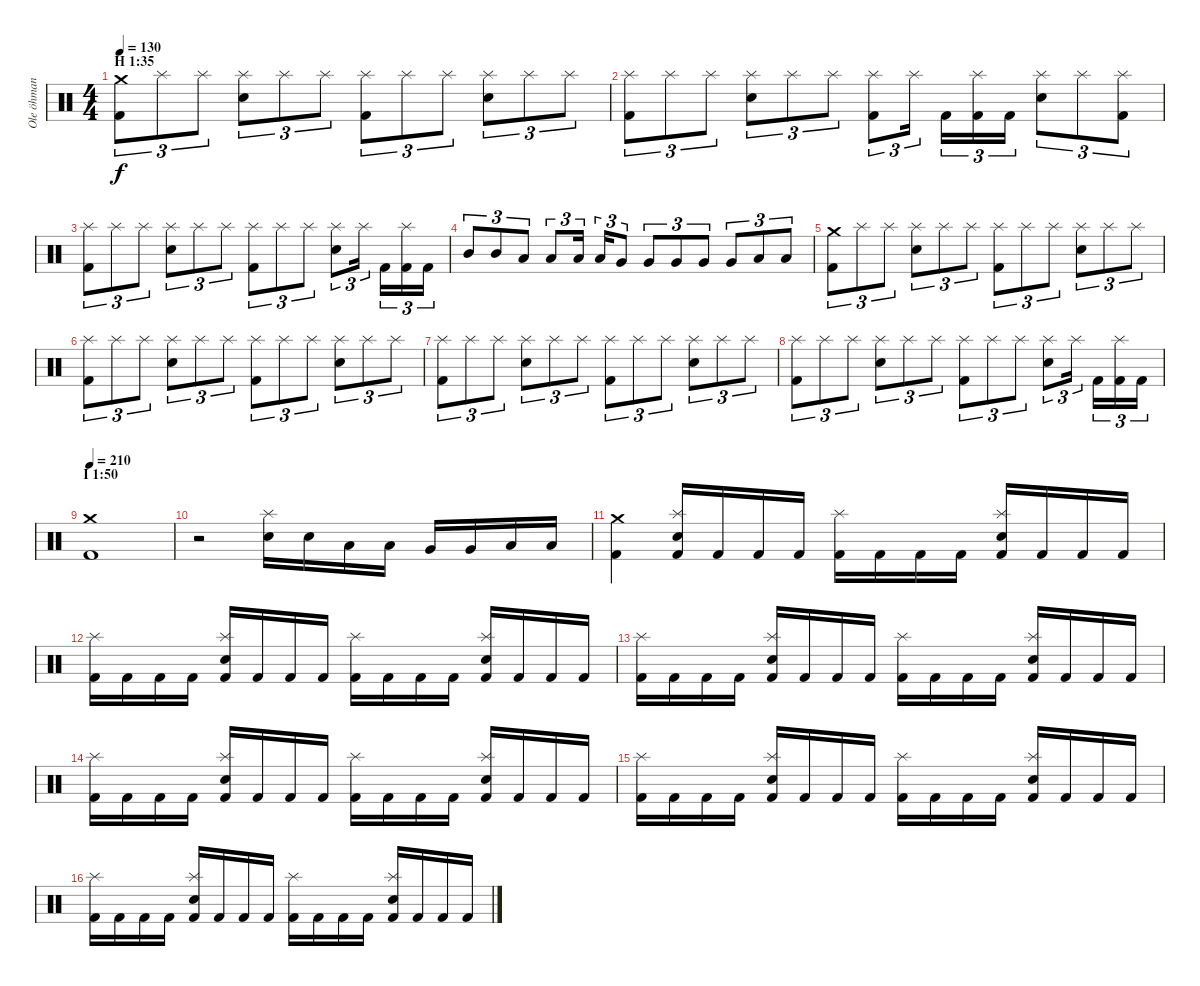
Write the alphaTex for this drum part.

\track ("Ole öhman" "Ole öhman") {instrument percussion}
\staff {score}
\articulation defaults
\ts (4 4)
\section ("" "H 1:35")
\tempo 130
\clef neutral
\ks c
("Crash medium (hit)" "Kick (hit) 2").8{tu (3 2) dy f} "Splash (hit)".8{tu (3 2)} "Splash (hit)".8{tu (3 2)} ("Splash (hit)" "Electric Snare (hit)").8{tu (3 2)} "Splash (hit)".8{tu (3 2)} "Splash (hit)".8{tu (3 2)} ("Splash (hit)" "Kick (hit) 2").8{tu (3 2)} "Splash (hit)".8{tu (3 2)} "Splash (hit)".8{tu (3 2)} ("Splash (hit)" "Electric Snare (hit)").8{tu (3 2)} "Splash (hit)".8{tu (3 2)} "Splash (hit)".8{tu (3 2)} |
("Splash (hit)" "Kick (hit) 2").8{tu (3 2)} "Splash (hit)".8{tu (3 2)} "Splash (hit)".8{tu (3 2)} ("Splash (hit)" "Electric Snare (hit)").8{tu (3 2)} "Splash (hit)".8{tu (3 2)} "Splash (hit)".8{tu (3 2)} ("Splash (hit)" "Kick (hit) 2").8{tu (3 2)} "Splash (hit)".16{tu (3 2)} "Kick (hit) 2".16{tu (3 2)} ("Splash (hit)" "Kick (hit) 2").16{tu (3 2)} "Kick (hit) 2".16{tu (3 2)} ("Splash (hit)" "Electric Snare (hit)").8{tu (3 2)} "Splash (hit)".8{tu (3 2)} ("Splash (hit)" "Kick (hit) 2").8{tu (3 2)} |
("Splash (hit)" "Kick (hit) 2").8{tu (3 2)} "Splash (hit)".8{tu (3 2)} "Splash (hit)".8{tu (3 2)} ("Splash (hit)" "Electric Snare (hit)").8{tu (3 2)} "Splash (hit)".8{tu (3 2)} "Splash (hit)".8{tu (3 2)} ("Splash (hit)" "Kick (hit) 2").8{tu (3 2)} "Splash (hit)".8{tu (3 2)} "Splash (hit)".8{tu (3 2)} ("Splash (hit)" "Electric Snare (hit)").8{tu (3 2)} "Splash (hit)".16{tu (3 2)} "Kick (hit) 2".16{tu (3 2)} ("Splash (hit)" "Kick (hit) 2").16{tu (3 2)} "Kick (hit) 2".16{tu (3 2)} |
"Mid Tom (hit)".8{tu (3 2)} "Mid Tom (hit)".8{tu (3 2)} "Low Tom (hit)".8{tu (3 2)} "Low Tom (hit)".8{tu (3 2)} "Low Tom (hit)".16{tu (3 2)} "Low Tom (hit)".16{tu (3 2)} "Very Low Tom (hit)".8{tu (3 2)} "Very Low Tom (hit)".8{tu (3 2)} "Very Low Tom (hit)".8{tu (3 2)} "Very Low Tom (hit)".8{tu (3 2)} "Very Low Tom (hit)".8{tu (3 2)} "Low Floor Tom (hit)".8{tu (3 2)} "Low Floor Tom (hit)".8{tu (3 2)} |
("Crash medium (hit)" "Kick (hit) 2").8{tu (3 2)} "Splash (hit)".8{tu (3 2)} "Splash (hit)".8{tu (3 2)} ("Splash (hit)" "Electric Snare (hit)").8{tu (3 2)} "Splash (hit)".8{tu (3 2)} "Splash (hit)".8{tu (3 2)} ("Splash (hit)" "Kick (hit) 2").8{tu (3 2)} "Splash (hit)".8{tu (3 2)} "Splash (hit)".8{tu (3 2)} ("Splash (hit)" "Electric Snare (hit)").8{tu (3 2)} "Splash (hit)".8{tu (3 2)} "Splash (hit)".8{tu (3 2)} |
("Splash (hit)" "Kick (hit) 2").8{tu (3 2)} "Splash (hit)".8{tu (3 2)} "Splash (hit)".8{tu (3 2)} ("Splash (hit)" "Electric Snare (hit)").8{tu (3 2)} "Splash (hit)".8{tu (3 2)} "Splash (hit)".8{tu (3 2)} ("Splash (hit)" "Kick (hit) 2").8{tu (3 2)} "Splash (hit)".8{tu (3 2)} "Splash (hit)".8{tu (3 2)} ("Splash (hit)" "Electric Snare (hit)").8{tu (3 2)} "Splash (hit)".8{tu (3 2)} "Splash (hit)".8{tu (3 2)} |
("Splash (hit)" "Kick (hit) 2").8{tu (3 2)} "Splash (hit)".8{tu (3 2)} "Splash (hit)".8{tu (3 2)} ("Splash (hit)" "Electric Snare (hit)").8{tu (3 2)} "Splash (hit)".8{tu (3 2)} "Splash (hit)".8{tu (3 2)} ("Splash (hit)" "Kick (hit) 2").8{tu (3 2)} "Splash (hit)".8{tu (3 2)} "Splash (hit)".8{tu (3 2)} ("Splash (hit)" "Electric Snare (hit)").8{tu (3 2)} "Splash (hit)".8{tu (3 2)} "Splash (hit)".8{tu (3 2)} |
("Splash (hit)" "Kick (hit) 2").8{tu (3 2)} "Splash (hit)".8{tu (3 2)} "Splash (hit)".8{tu (3 2)} ("Splash (hit)" "Electric Snare (hit)").8{tu (3 2)} "Splash (hit)".8{tu (3 2)} "Splash (hit)".8{tu (3 2)} ("Splash (hit)" "Kick (hit) 2").8{tu (3 2)} "Splash (hit)".8{tu (3 2)} "Splash (hit)".8{tu (3 2)} ("Splash (hit)" "Electric Snare (hit)").8{tu (3 2)} "Splash (hit)".16{tu (3 2)} "Kick (hit) 2".16{tu (3 2)} ("Splash (hit)" "Kick (hit) 2").16{tu (3 2)} "Kick (hit) 2".16{tu (3 2)} |
\section ("" "I 1:50")
\tempo 210
("Crash medium (hit)" "Kick (hit) 2").1 |
r.2 ("Splash (hit)" "Electric Snare (hit)").16 "Electric Snare (hit)".16 "Low Tom (hit)".16 "Low Tom (hit)".16 "Very Low Tom (hit)".16 "Very Low Tom (hit)".16 "Low Floor Tom (hit)".16 "Low Floor Tom (hit)".16 |
("Crash medium (hit)" "Kick (hit) 2").4 ("Splash (hit)" "Electric Snare (hit)" "Kick (hit) 2").16 "Kick (hit) 2".16 "Kick (hit) 2".16 "Kick (hit) 2".16 ("Splash (hit)" "Kick (hit) 2").16 "Kick (hit) 2".16 "Kick (hit) 2".16 "Kick (hit) 2".16 ("Splash (hit)" "Electric Snare (hit)" "Kick (hit) 2").16 "Kick (hit) 2".16 "Kick (hit) 2".16 "Kick (hit) 2".16 |
("Splash (hit)" "Kick (hit) 2").16 "Kick (hit) 2".16 "Kick (hit) 2".16 "Kick (hit) 2".16 ("Splash (hit)" "Electric Snare (hit)" "Kick (hit) 2").16 "Kick (hit) 2".16 "Kick (hit) 2".16 "Kick (hit) 2".16 ("Splash (hit)" "Kick (hit) 2").16 "Kick (hit) 2".16 "Kick (hit) 2".16 "Kick (hit) 2".16 ("Splash (hit)" "Electric Snare (hit)" "Kick (hit) 2").16 "Kick (hit) 2".16 "Kick (hit) 2".16 "Kick (hit) 2".16 |
("Splash (hit)" "Kick (hit) 2").16 "Kick (hit) 2".16 "Kick (hit) 2".16 "Kick (hit) 2".16 ("Splash (hit)" "Electric Snare (hit)" "Kick (hit) 2").16 "Kick (hit) 2".16 "Kick (hit) 2".16 "Kick (hit) 2".16 ("Splash (hit)" "Kick (hit) 2").16 "Kick (hit) 2".16 "Kick (hit) 2".16 "Kick (hit) 2".16 ("Splash (hit)" "Electric Snare (hit)" "Kick (hit) 2").16 "Kick (hit) 2".16 "Kick (hit) 2".16 "Kick (hit) 2".16 |
("Splash (hit)" "Kick (hit) 2").16 "Kick (hit) 2".16 "Kick (hit) 2".16 "Kick (hit) 2".16 ("Splash (hit)" "Electric Snare (hit)" "Kick (hit) 2").16 "Kick (hit) 2".16 "Kick (hit) 2".16 "Kick (hit) 2".16 ("Splash (hit)" "Kick (hit) 2").16 "Kick (hit) 2".16 "Kick (hit) 2".16 "Kick (hit) 2".16 ("Splash (hit)" "Electric Snare (hit)" "Kick (hit) 2").16 "Kick (hit) 2".16 "Kick (hit) 2".16 "Kick (hit) 2".16 |
("Splash (hit)" "Kick (hit) 2").16 "Kick (hit) 2".16 "Kick (hit) 2".16 "Kick (hit) 2".16 ("Splash (hit)" "Electric Snare (hit)" "Kick (hit) 2").16 "Kick (hit) 2".16 "Kick (hit) 2".16 "Kick (hit) 2".16 ("Splash (hit)" "Kick (hit) 2").16 "Kick (hit) 2".16 "Kick (hit) 2".16 "Kick (hit) 2".16 ("Splash (hit)" "Electric Snare (hit)" "Kick (hit) 2").16 "Kick (hit) 2".16 "Kick (hit) 2".16 "Kick (hit) 2".16 |
("Splash (hit)" "Kick (hit) 2").16 "Kick (hit) 2".16 "Kick (hit) 2".16 "Kick (hit) 2".16 ("Splash (hit)" "Electric Snare (hit)" "Kick (hit) 2").16 "Kick (hit) 2".16 "Kick (hit) 2".16 "Kick (hit) 2".16 ("Splash (hit)" "Kick (hit) 2").16 "Kick (hit) 2".16 "Kick (hit) 2".16 "Kick (hit) 2".16 ("Splash (hit)" "Electric Snare (hit)" "Kick (hit) 2").16 "Kick (hit) 2".16 "Kick (hit) 2".16 "Kick (hit) 2".16
